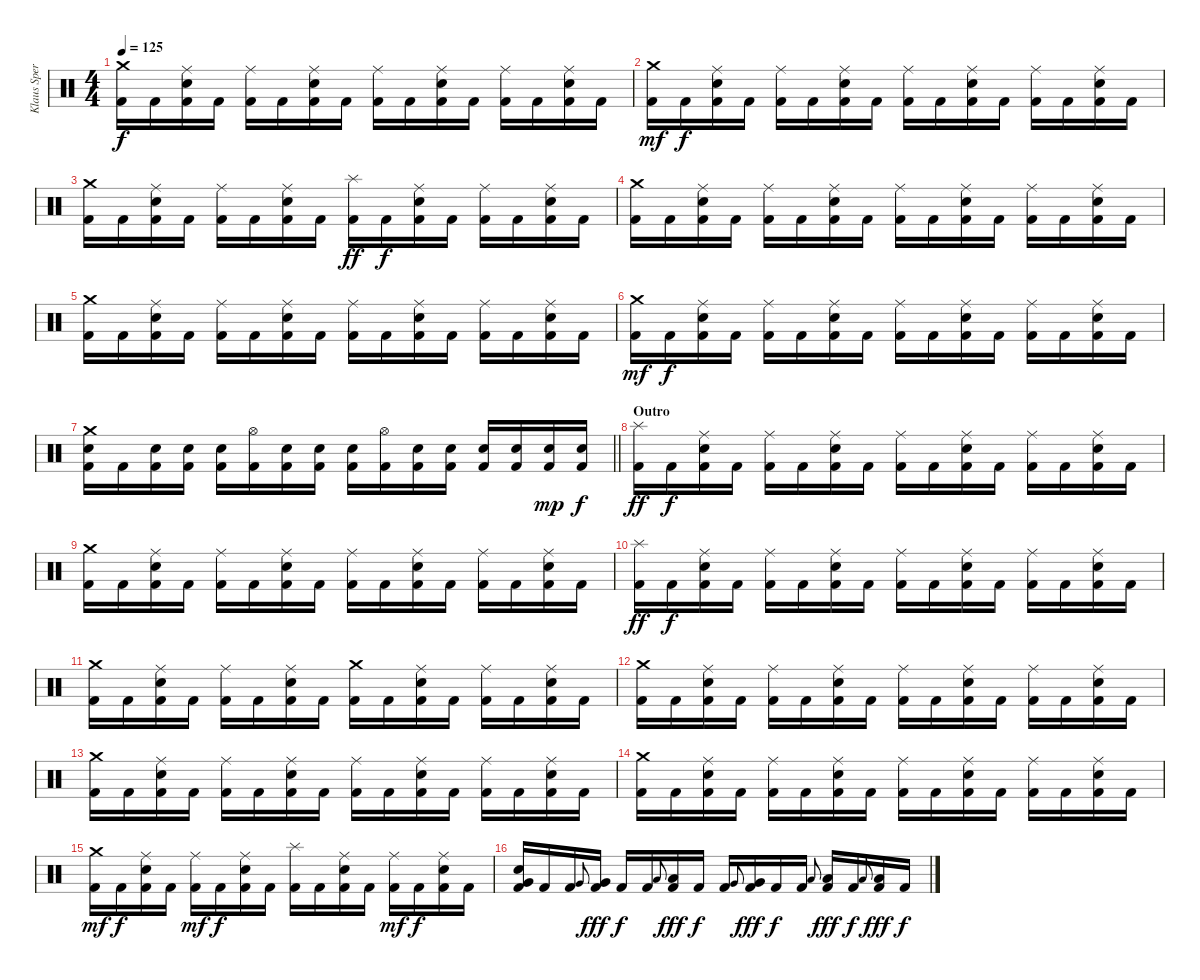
\track ("Klaus Sperling" "Klaus Sper") {instrument percussion}
\staff {score}
\articulation defaults
\ts (4 4)
\tempo 125
\clef neutral
\ks c
("Crash medium (hit)" "Kick (hit) 2").16{dy f} "Kick (hit) 2".16 ("Ride (middle)" "Electric Snare (hit)" "Kick (hit) 2").16 "Kick (hit) 2".16 ("Ride (middle)" "Kick (hit) 2").16 "Kick (hit) 2".16 ("Ride (middle)" "Electric Snare (hit)" "Kick (hit) 2").16 "Kick (hit) 2".16 ("Ride (middle)" "Kick (hit) 2").16 "Kick (hit) 2".16 ("Ride (middle)" "Electric Snare (hit)" "Kick (hit) 2").16 "Kick (hit) 2".16 ("Ride (middle)" "Kick (hit) 2").16 "Kick (hit) 2".16 ("Ride (middle)" "Electric Snare (hit)" "Kick (hit) 2").16 "Kick (hit) 2".16 |
("Crash medium (hit)" "Kick (hit) 2").16{dy mf} "Kick (hit) 2".16{dy f} ("Ride (middle)" "Electric Snare (hit)" "Kick (hit) 2").16 "Kick (hit) 2".16 ("Ride (middle)" "Kick (hit) 2").16 "Kick (hit) 2".16 ("Ride (middle)" "Electric Snare (hit)" "Kick (hit) 2").16 "Kick (hit) 2".16 ("Ride (middle)" "Kick (hit) 2").16 "Kick (hit) 2".16 ("Ride (middle)" "Electric Snare (hit)" "Kick (hit) 2").16 "Kick (hit) 2".16 ("Ride (middle)" "Kick (hit) 2").16 "Kick (hit) 2".16 ("Ride (middle)" "Electric Snare (hit)" "Kick (hit) 2").16 "Kick (hit) 2".16 |
("Crash medium (hit)" "Kick (hit) 2").16 "Kick (hit) 2".16 ("Ride (middle)" "Electric Snare (hit)" "Kick (hit) 2").16 "Kick (hit) 2".16 ("Ride (middle)" "Kick (hit) 2").16 "Kick (hit) 2".16 ("Ride (middle)" "Electric Snare (hit)" "Kick (hit) 2").16 "Kick (hit) 2".16 ("Splash (hit)" "Kick (hit) 2").16{dy ff} "Kick (hit) 2".16{dy f} ("Ride (middle)" "Electric Snare (hit)" "Kick (hit) 2").16 "Kick (hit) 2".16 ("Ride (middle)" "Kick (hit) 2").16 "Kick (hit) 2".16 ("Ride (middle)" "Electric Snare (hit)" "Kick (hit) 2").16 "Kick (hit) 2".16 |
("Crash medium (hit)" "Kick (hit) 2").16 "Kick (hit) 2".16 ("Ride (middle)" "Electric Snare (hit)" "Kick (hit) 2").16 "Kick (hit) 2".16 ("Ride (middle)" "Kick (hit) 2").16 "Kick (hit) 2".16 ("Ride (middle)" "Electric Snare (hit)" "Kick (hit) 2").16 "Kick (hit) 2".16 ("Ride (middle)" "Kick (hit) 2").16 "Kick (hit) 2".16 ("Ride (middle)" "Electric Snare (hit)" "Kick (hit) 2").16 "Kick (hit) 2".16 ("Ride (middle)" "Kick (hit) 2").16 "Kick (hit) 2".16 ("Ride (middle)" "Electric Snare (hit)" "Kick (hit) 2").16 "Kick (hit) 2".16 |
("Crash medium (hit)" "Kick (hit) 2").16 "Kick (hit) 2".16 ("Ride (middle)" "Electric Snare (hit)" "Kick (hit) 2").16 "Kick (hit) 2".16 ("Ride (middle)" "Kick (hit) 2").16 "Kick (hit) 2".16 ("Ride (middle)" "Electric Snare (hit)" "Kick (hit) 2").16 "Kick (hit) 2".16 ("Ride (middle)" "Kick (hit) 2").16 "Kick (hit) 2".16 ("Ride (middle)" "Electric Snare (hit)" "Kick (hit) 2").16 "Kick (hit) 2".16 ("Ride (middle)" "Kick (hit) 2").16 "Kick (hit) 2".16 ("Ride (middle)" "Electric Snare (hit)" "Kick (hit) 2").16 "Kick (hit) 2".16 |
("Crash medium (hit)" "Kick (hit) 2").16{dy mf} "Kick (hit) 2".16{dy f} ("Ride (middle)" "Electric Snare (hit)" "Kick (hit) 2").16 "Kick (hit) 2".16 ("Ride (middle)" "Kick (hit) 2").16 "Kick (hit) 2".16 ("Ride (middle)" "Electric Snare (hit)" "Kick (hit) 2").16 "Kick (hit) 2".16 ("Ride (middle)" "Kick (hit) 2").16 "Kick (hit) 2".16 ("Ride (middle)" "Electric Snare (hit)" "Kick (hit) 2").16 "Kick (hit) 2".16 ("Ride (middle)" "Kick (hit) 2").16 "Kick (hit) 2".16 ("Ride (middle)" "Electric Snare (hit)" "Kick (hit) 2").16 "Kick (hit) 2".16 |
\barLineRight lightlight
("Crash medium (hit)" "Electric Snare (hit)" "Kick (hit) 2").16 "Kick (hit) 2".16 ("Electric Snare (hit)" "Kick (hit) 2").16 ("Electric Snare (hit)" "Kick (hit) 2").16 ("Electric Snare (hit)" "Kick (hit) 2").16 ("Hi-Hat (open)" "Kick (hit) 2").16 ("Electric Snare (hit)" "Kick (hit) 2").16 ("Electric Snare (hit)" "Kick (hit) 2").16 ("Electric Snare (hit)" "Kick (hit) 2").16 ("Hi-Hat (open)" "Kick (hit) 2").16 ("Electric Snare (hit)" "Kick (hit) 2").16 ("Electric Snare (hit)" "Kick (hit) 2").16 ("Electric Snare (hit)" "Kick (hit) 2").16 ("Electric Snare (hit)" "Kick (hit) 2").16 ("Electric Snare (hit)" "Kick (hit) 2").16{dy mp} ("Electric Snare (hit)" "Kick (hit) 2").16{dy f} |
\section ("" "Outro")
("Splash (hit)" "Kick (hit) 2").16{dy ff} "Kick (hit) 2".16{dy f} ("Ride (middle)" "Electric Snare (hit)" "Kick (hit) 2").16 "Kick (hit) 2".16 ("Ride (middle)" "Kick (hit) 2").16 "Kick (hit) 2".16 ("Ride (middle)" "Electric Snare (hit)" "Kick (hit) 2").16 "Kick (hit) 2".16 ("Ride (middle)" "Kick (hit) 2").16 "Kick (hit) 2".16 ("Ride (middle)" "Electric Snare (hit)" "Kick (hit) 2").16 "Kick (hit) 2".16 ("Ride (middle)" "Kick (hit) 2").16 "Kick (hit) 2".16 ("Ride (middle)" "Electric Snare (hit)" "Kick (hit) 2").16 "Kick (hit) 2".16 |
("Crash medium (hit)" "Kick (hit) 2").16 "Kick (hit) 2".16 ("Ride (middle)" "Electric Snare (hit)" "Kick (hit) 2").16 "Kick (hit) 2".16 ("Ride (middle)" "Kick (hit) 2").16 "Kick (hit) 2".16 ("Ride (middle)" "Electric Snare (hit)" "Kick (hit) 2").16 "Kick (hit) 2".16 ("Ride (middle)" "Kick (hit) 2").16 "Kick (hit) 2".16 ("Ride (middle)" "Electric Snare (hit)" "Kick (hit) 2").16 "Kick (hit) 2".16 ("Ride (middle)" "Kick (hit) 2").16 "Kick (hit) 2".16 ("Ride (middle)" "Electric Snare (hit)" "Kick (hit) 2").16 "Kick (hit) 2".16 |
("Splash (hit)" "Kick (hit) 2").16{dy ff} "Kick (hit) 2".16{dy f} ("Ride (middle)" "Electric Snare (hit)" "Kick (hit) 2").16 "Kick (hit) 2".16 ("Ride (middle)" "Kick (hit) 2").16 "Kick (hit) 2".16 ("Ride (middle)" "Electric Snare (hit)" "Kick (hit) 2").16 "Kick (hit) 2".16 ("Ride (middle)" "Kick (hit) 2").16 "Kick (hit) 2".16 ("Ride (middle)" "Electric Snare (hit)" "Kick (hit) 2").16 "Kick (hit) 2".16 ("Ride (middle)" "Kick (hit) 2").16 "Kick (hit) 2".16 ("Ride (middle)" "Electric Snare (hit)" "Kick (hit) 2").16 "Kick (hit) 2".16 |
("Crash medium (hit)" "Kick (hit) 2").16 "Kick (hit) 2".16 ("Ride (middle)" "Electric Snare (hit)" "Kick (hit) 2").16 "Kick (hit) 2".16 ("Ride (middle)" "Kick (hit) 2").16 "Kick (hit) 2".16 ("Ride (middle)" "Electric Snare (hit)" "Kick (hit) 2").16 "Kick (hit) 2".16 ("Crash medium (hit)" "Kick (hit) 2").16 "Kick (hit) 2".16 ("Ride (middle)" "Electric Snare (hit)" "Kick (hit) 2").16 "Kick (hit) 2".16 ("Ride (middle)" "Kick (hit) 2").16 "Kick (hit) 2".16 ("Ride (middle)" "Electric Snare (hit)" "Kick (hit) 2").16 "Kick (hit) 2".16 |
("Crash medium (hit)" "Kick (hit) 2").16 "Kick (hit) 2".16 ("Ride (middle)" "Electric Snare (hit)" "Kick (hit) 2").16 "Kick (hit) 2".16 ("Ride (middle)" "Kick (hit) 2").16 "Kick (hit) 2".16 ("Ride (middle)" "Electric Snare (hit)" "Kick (hit) 2").16 "Kick (hit) 2".16 ("Ride (middle)" "Kick (hit) 2").16 "Kick (hit) 2".16 ("Ride (middle)" "Electric Snare (hit)" "Kick (hit) 2").16 "Kick (hit) 2".16 ("Ride (middle)" "Kick (hit) 2").16 "Kick (hit) 2".16 ("Ride (middle)" "Electric Snare (hit)" "Kick (hit) 2").16 "Kick (hit) 2".16 |
("Crash medium (hit)" "Kick (hit) 2").16 "Kick (hit) 2".16 ("Ride (middle)" "Electric Snare (hit)" "Kick (hit) 2").16 "Kick (hit) 2".16 ("Ride (middle)" "Kick (hit) 2").16 "Kick (hit) 2".16 ("Ride (middle)" "Electric Snare (hit)" "Kick (hit) 2").16 "Kick (hit) 2".16 ("Ride (middle)" "Kick (hit) 2").16 "Kick (hit) 2".16 ("Ride (middle)" "Electric Snare (hit)" "Kick (hit) 2").16 "Kick (hit) 2".16 ("Ride (middle)" "Kick (hit) 2").16 "Kick (hit) 2".16 ("Ride (middle)" "Electric Snare (hit)" "Kick (hit) 2").16 "Kick (hit) 2".16 |
("Crash medium (hit)" "Kick (hit) 2").16 "Kick (hit) 2".16 ("Ride (middle)" "Electric Snare (hit)" "Kick (hit) 2").16 "Kick (hit) 2".16 ("Ride (middle)" "Kick (hit) 2").16 "Kick (hit) 2".16 ("Ride (middle)" "Electric Snare (hit)" "Kick (hit) 2").16 "Kick (hit) 2".16 ("Ride (middle)" "Kick (hit) 2").16 "Kick (hit) 2".16 ("Ride (middle)" "Electric Snare (hit)" "Kick (hit) 2").16 "Kick (hit) 2".16 ("Ride (middle)" "Kick (hit) 2").16 "Kick (hit) 2".16 ("Ride (middle)" "Electric Snare (hit)" "Kick (hit) 2").16 "Kick (hit) 2".16 |
("Crash medium (hit)" "Kick (hit) 2").16{dy mf} "Kick (hit) 2".16{dy f} ("Ride (middle)" "Electric Snare (hit)" "Kick (hit) 2").16 "Kick (hit) 2".16 ("Ride (middle)" "Kick (hit) 2").16{dy mf} "Kick (hit) 2".16{dy f} ("Ride (middle)" "Electric Snare (hit)" "Kick (hit) 2").16 "Kick (hit) 2".16 ("Splash (hit)" "Kick (hit) 2").16 "Kick (hit) 2".16 ("Ride (middle)" "Electric Snare (hit)" "Kick (hit) 2").16 "Kick (hit) 2".16 ("Ride (middle)" "Kick (hit) 2").16{dy mf} "Kick (hit) 2".16{dy f} ("Ride (middle)" "Electric Snare (hit)" "Kick (hit) 2").16 "Kick (hit) 2".16 |
("Electric Snare (hit)" "Very Low Tom (hit)" "Kick (hit) 2").16 "Kick (hit) 2".16 "Kick (hit) 2".16 "Very Low Tom (hit)".8{gr onbeat} ("Very Low Tom (hit)" "Kick (hit) 2").16{dy fff} "Kick (hit) 2".16{dy f} "Kick (hit) 2".16 "Low Tom (hit)".8{gr onbeat} ("Low Tom (hit)" "Kick (hit) 2").16{dy fff} "Kick (hit) 2".16{dy f} "Kick (hit) 2".16 "Very Low Tom (hit)".8{gr onbeat} ("Very Low Tom (hit)" "Kick (hit) 2").16{dy fff} "Kick (hit) 2".16{dy f} "Kick (hit) 2".16 "Low Floor Tom (hit)".8{gr onbeat} ("Low Floor Tom (hit)" "Kick (hit) 2").16{dy fff} "Kick (hit) 2".16{dy f} "Low Floor Tom (hit)".8{gr onbeat} ("Low Floor Tom (hit)" "Kick (hit) 2").16{dy fff} "Kick (hit) 2".16{dy f}
